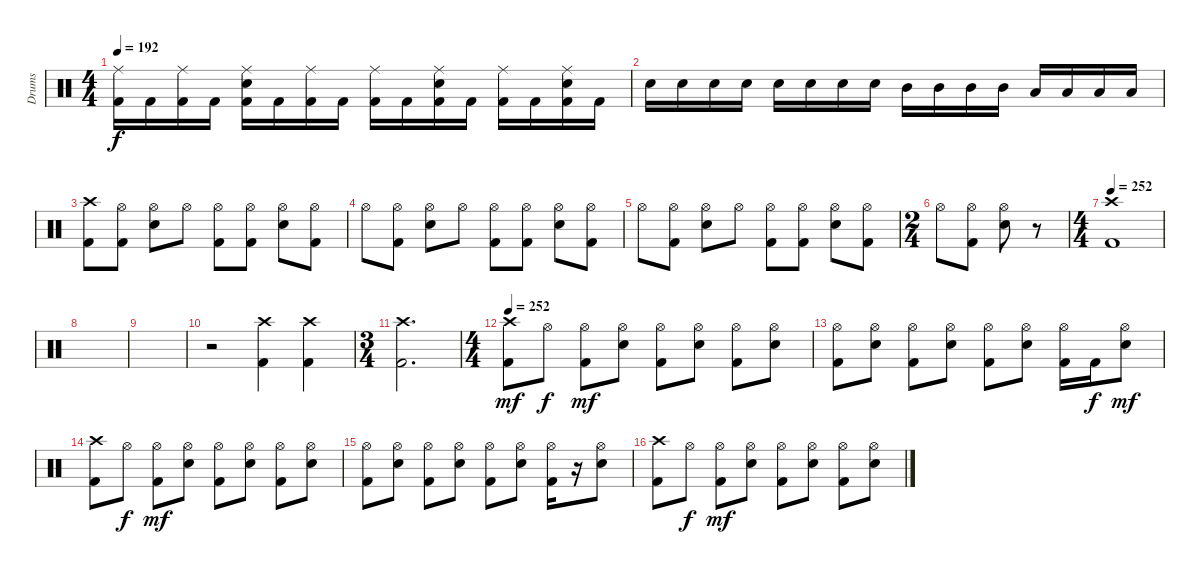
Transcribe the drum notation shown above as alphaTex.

\track ("Drums" "Drums") {instrument percussion}
\staff {score}
\articulation defaults
\ts (4 4)
\tempo 192
\clef neutral
\ks c
("Ride (middle)" "Kick (hit) 2").16{dy f} "Kick (hit) 2".16 ("Ride (middle)" "Kick (hit) 2").16 "Kick (hit) 2".16 ("Ride (middle)" "Snare (hit) 2" "Kick (hit) 2").16 "Kick (hit) 2".16 ("Ride (middle)" "Kick (hit) 2").16 "Kick (hit) 2".16 ("Ride (middle)" "Kick (hit) 2").16 "Kick (hit) 2".16 ("Ride (middle)" "Snare (hit) 2" "Kick (hit) 2").16 "Kick (hit) 2".16 ("Ride (middle)" "Kick (hit) 2").16 "Kick (hit) 2".16 ("Ride (middle)" "Snare (hit) 2" "Kick (hit) 2").16 "Kick (hit) 2".16 |
"Snare (hit) 2".16 "Snare (hit) 2".16 "Snare (hit) 2".16 "Snare (hit) 2".16 "Snare (hit) 2".16 "Snare (hit) 2".16 "Snare (hit) 2".16 "Snare (hit) 2".16 "Mid Tom (hit)".16 "Mid Tom (hit)".16 "Mid Tom (hit)".16 "Mid Tom (hit)".16 "Low Tom (hit)".16 "Low Tom (hit)".16 "Low Tom (hit)".16 "Low Tom (hit)".16 |
("Crash high (hit)" "Kick (hit) 2").8 ("Hi-Hat (open)" "Kick (hit) 2").8 ("Hi-Hat (open)" "Snare (hit) 2").8 "Hi-Hat (open)".8 ("Hi-Hat (open)" "Kick (hit) 2").8 ("Hi-Hat (open)" "Kick (hit) 2").8 ("Hi-Hat (open)" "Snare (hit) 2").8 ("Hi-Hat (open)" "Kick (hit) 2").8 |
"Hi-Hat (open)".8 ("Hi-Hat (open)" "Kick (hit) 2").8 ("Hi-Hat (open)" "Snare (hit) 2").8 "Hi-Hat (open)".8 ("Hi-Hat (open)" "Kick (hit) 2").8 ("Hi-Hat (open)" "Kick (hit) 2").8 ("Hi-Hat (open)" "Snare (hit) 2").8 ("Hi-Hat (open)" "Kick (hit) 2").8 |
"Hi-Hat (open)".8 ("Hi-Hat (open)" "Kick (hit) 2").8 ("Hi-Hat (open)" "Snare (hit) 2").8 "Hi-Hat (open)".8 ("Hi-Hat (open)" "Kick (hit) 2").8 ("Hi-Hat (open)" "Kick (hit) 2").8 ("Hi-Hat (open)" "Snare (hit) 2").8 ("Hi-Hat (open)" "Kick (hit) 2").8 |
\ts (2 4)
"Hi-Hat (open)".8 ("Hi-Hat (open)" "Kick (hit) 2").8 ("Hi-Hat (open)" "Snare (hit) 2").8 r.8 |
\ts (4 4)
\tempo 252
("Crash high (hit)" "Kick (hit) 2").1 |
|
|
r.2 ("Crash high (hit)" "Kick (hit) 2").4 ("Crash high (hit)" "Kick (hit) 2").4 |
\ts (3 4)
("Crash high (hit)" "Kick (hit) 2").2{d} |
\ts (4 4)
\tempo 252
("Crash high (hit)" "Kick (hit) 2").8{dy mf} "Hi-Hat (open)".8{dy f} ("Hi-Hat (open)" "Kick (hit) 2").8{dy mf} ("Hi-Hat (open)" "Snare (hit) 2").8 ("Hi-Hat (open)" "Kick (hit) 2").8 ("Hi-Hat (open)" "Snare (hit) 2").8 ("Hi-Hat (open)" "Kick (hit) 2").8 ("Hi-Hat (open)" "Snare (hit) 2").8 |
("Hi-Hat (open)" "Kick (hit) 2").8 ("Hi-Hat (open)" "Snare (hit) 2").8 ("Hi-Hat (open)" "Kick (hit) 2").8 ("Hi-Hat (open)" "Snare (hit) 2").8 ("Hi-Hat (open)" "Kick (hit) 2").8 ("Hi-Hat (open)" "Snare (hit) 2").8 ("Hi-Hat (open)" "Kick (hit) 2").16 "Kick (hit) 2".16{dy f} ("Hi-Hat (open)" "Snare (hit) 2").8{dy mf} |
("Crash high (hit)" "Kick (hit) 2").8 "Hi-Hat (open)".8{dy f} ("Hi-Hat (open)" "Kick (hit) 2").8{dy mf} ("Hi-Hat (open)" "Snare (hit) 2").8 ("Hi-Hat (open)" "Kick (hit) 2").8 ("Hi-Hat (open)" "Snare (hit) 2").8 ("Hi-Hat (open)" "Kick (hit) 2").8 ("Hi-Hat (open)" "Snare (hit) 2").8 |
("Hi-Hat (open)" "Kick (hit) 2").8 ("Hi-Hat (open)" "Snare (hit) 2").8 ("Hi-Hat (open)" "Kick (hit) 2").8 ("Hi-Hat (open)" "Snare (hit) 2").8 ("Hi-Hat (open)" "Kick (hit) 2").8 ("Hi-Hat (open)" "Snare (hit) 2").8 ("Hi-Hat (open)" "Kick (hit) 2").16 r.16 ("Hi-Hat (open)" "Snare (hit) 2").8 |
("Crash high (hit)" "Kick (hit) 2").8 "Hi-Hat (open)".8{dy f} ("Hi-Hat (open)" "Kick (hit) 2").8{dy mf} ("Hi-Hat (open)" "Snare (hit) 2").8 ("Hi-Hat (open)" "Kick (hit) 2").8 ("Hi-Hat (open)" "Snare (hit) 2").8 ("Hi-Hat (open)" "Kick (hit) 2").8 ("Hi-Hat (open)" "Snare (hit) 2").8
